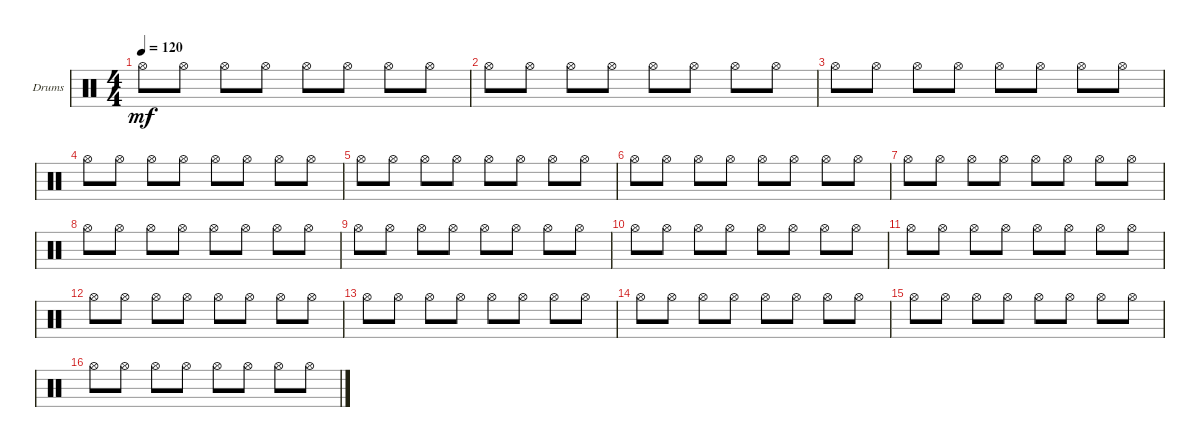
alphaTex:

\defaultSystemsLayout 4
\bracketExtendMode groupsimilarinstruments
\firstSystemTrackNameOrientation horizontal
\otherSystemsTrackNameOrientation horizontal
\track ("Drumkit" "Drums") {instrument percussion}
\staff {score}
\articulation defaults
\ts (4 4)
\tempo 120
\clef neutral
\scale
0.333333
\ks c "Hi-Hat (open)".8{dy mf} "Hi-Hat (open)".8 "Hi-Hat (open)".8 "Hi-Hat (open)".8 "Hi-Hat (open)".8 "Hi-Hat (open)".8 "Hi-Hat (open)".8 "Hi-Hat (open)".8
|
\scale
0.333333 "Hi-Hat (open)".8 "Hi-Hat (open)".8 "Hi-Hat (open)".8 "Hi-Hat (open)".8 "Hi-Hat (open)".8 "Hi-Hat (open)".8 "Hi-Hat (open)".8 "Hi-Hat (open)".8 |
\scale
0.333333 "Hi-Hat (open)".8 "Hi-Hat (open)".8 "Hi-Hat (open)".8 "Hi-Hat (open)".8 "Hi-Hat (open)".8 "Hi-Hat (open)".8 "Hi-Hat (open)".8 "Hi-Hat (open)".8 |
\scale
0.333333 "Hi-Hat (open)".8 "Hi-Hat (open)".8 "Hi-Hat (open)".8 "Hi-Hat (open)".8 "Hi-Hat (open)".8 "Hi-Hat (open)".8 "Hi-Hat (open)".8 "Hi-Hat (open)".8 |
\scale
0.333333 "Hi-Hat (open)".8 "Hi-Hat (open)".8 "Hi-Hat (open)".8 "Hi-Hat (open)".8 "Hi-Hat (open)".8 "Hi-Hat (open)".8 "Hi-Hat (open)".8 "Hi-Hat (open)".8 |
\scale
0.333333 "Hi-Hat (open)".8 "Hi-Hat (open)".8 "Hi-Hat (open)".8 "Hi-Hat (open)".8 "Hi-Hat (open)".8 "Hi-Hat (open)".8 "Hi-Hat (open)".8 "Hi-Hat (open)".8 |
\scale
0.333333 "Hi-Hat (open)".8 "Hi-Hat (open)".8 "Hi-Hat (open)".8 "Hi-Hat (open)".8 "Hi-Hat (open)".8 "Hi-Hat (open)".8 "Hi-Hat (open)".8 "Hi-Hat (open)".8 |
\scale
0.333333 "Hi-Hat (open)".8 "Hi-Hat (open)".8 "Hi-Hat (open)".8 "Hi-Hat (open)".8 "Hi-Hat (open)".8 "Hi-Hat (open)".8 "Hi-Hat (open)".8 "Hi-Hat (open)".8 |
\scale
0.333333 "Hi-Hat (open)".8 "Hi-Hat (open)".8 "Hi-Hat (open)".8 "Hi-Hat (open)".8 "Hi-Hat (open)".8 "Hi-Hat (open)".8 "Hi-Hat (open)".8 "Hi-Hat (open)".8 |
\scale
0.333333 "Hi-Hat (open)".8 "Hi-Hat (open)".8 "Hi-Hat (open)".8 "Hi-Hat (open)".8 "Hi-Hat (open)".8 "Hi-Hat (open)".8 "Hi-Hat (open)".8 "Hi-Hat (open)".8 |
\scale
0.333333 "Hi-Hat (open)".8 "Hi-Hat (open)".8 "Hi-Hat (open)".8 "Hi-Hat (open)".8 "Hi-Hat (open)".8 "Hi-Hat (open)".8 "Hi-Hat (open)".8 "Hi-Hat (open)".8 |
\scale
0.333333 "Hi-Hat (open)".8 "Hi-Hat (open)".8 "Hi-Hat (open)".8 "Hi-Hat (open)".8 "Hi-Hat (open)".8 "Hi-Hat (open)".8 "Hi-Hat (open)".8 "Hi-Hat (open)".8 |
\scale
0.333333 "Hi-Hat (open)".8 "Hi-Hat (open)".8 "Hi-Hat (open)".8 "Hi-Hat (open)".8 "Hi-Hat (open)".8 "Hi-Hat (open)".8 "Hi-Hat (open)".8 "Hi-Hat (open)".8 |
\scale
0.333333 "Hi-Hat (open)".8 "Hi-Hat (open)".8 "Hi-Hat (open)".8 "Hi-Hat (open)".8 "Hi-Hat (open)".8 "Hi-Hat (open)".8 "Hi-Hat (open)".8 "Hi-Hat (open)".8 |
\scale
0.333333 "Hi-Hat (open)".8 "Hi-Hat (open)".8 "Hi-Hat (open)".8 "Hi-Hat (open)".8 "Hi-Hat (open)".8 "Hi-Hat (open)".8 "Hi-Hat (open)".8 "Hi-Hat (open)".8 |
\scale
0.333333 "Hi-Hat (open)".8 "Hi-Hat (open)".8 "Hi-Hat (open)".8 "Hi-Hat (open)".8 "Hi-Hat (open)".8 "Hi-Hat (open)".8 "Hi-Hat (open)".8 "Hi-Hat (open)".8
